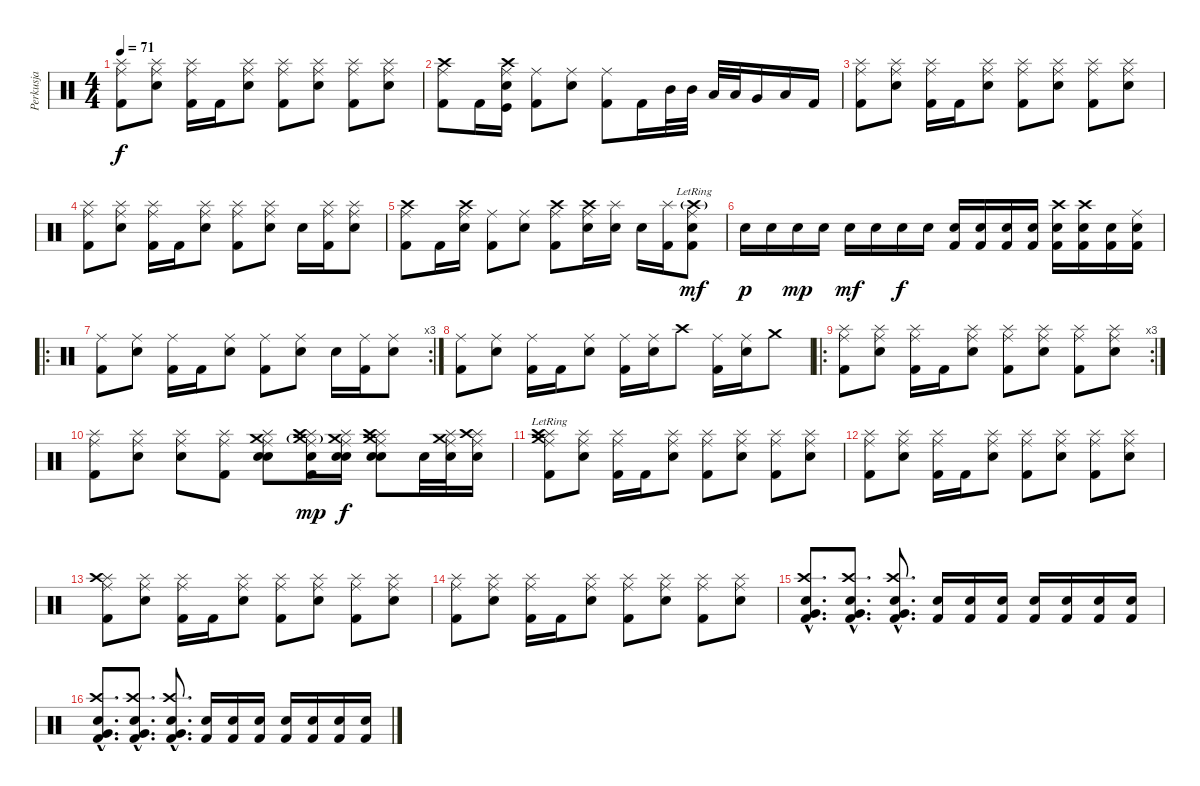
\track ("Perkusja" "Perkusja") {instrument percussion}
\staff {score}
\articulation defaults
\ts (4 4)
\tempo 71
\clef neutral
\ks c
("Ride (middle)" "Splash (hit)" "Kick (hit) 2").8{dy f} ("Ride (middle)" "Splash (hit)" "Electric Snare (hit)").8 ("Ride (middle)" "Splash (hit)" "Kick (hit) 2").16 "Kick (hit) 2".16 ("Ride (middle)" "Splash (hit)" "Electric Snare (hit)").8 ("Ride (middle)" "Splash (hit)" "Kick (hit) 2").8 ("Ride (middle)" "Splash (hit)" "Electric Snare (hit)").8 ("Ride (middle)" "Splash (hit)" "Kick (hit) 2").8 ("Ride (middle)" "Splash (hit)" "Electric Snare (hit)").8 |
("Ride (middle)" "Crash high (hit)" "Kick (hit) 2").8 "Kick (hit) 2".16 ("Ride (middle)" "Crash high (hit)" "Electric Snare (hit)" "Kick (hit)").16 ("Ride (middle)" "Kick (hit) 2").8 ("Ride (middle)" "Electric Snare (hit)").8 ("Ride (middle)" "Kick (hit) 2").8 "Kick (hit) 2".16 "Mid Tom (hit)".32 "Mid Tom (hit)".32 "Low Tom (hit)".32 "Low Tom (hit)".32 "Very Low Tom (hit)".16 "Low Floor Tom (hit)".16 "Kick (hit) 2".16 |
("Ride (middle)" "Splash (hit)" "Kick (hit) 2").8 ("Ride (middle)" "Splash (hit)" "Electric Snare (hit)").8 ("Ride (middle)" "Splash (hit)" "Kick (hit) 2").16 "Kick (hit) 2".16 ("Ride (middle)" "Splash (hit)" "Electric Snare (hit)").8 ("Ride (middle)" "Splash (hit)" "Kick (hit) 2").8 ("Ride (middle)" "Splash (hit)" "Electric Snare (hit)").8 ("Ride (middle)" "Splash (hit)" "Kick (hit) 2").8 ("Ride (middle)" "Splash (hit)" "Electric Snare (hit)").8 |
("Ride (middle)" "Splash (hit)" "Kick (hit) 2").8 ("Ride (middle)" "Splash (hit)" "Electric Snare (hit)").8 ("Ride (middle)" "Splash (hit)" "Kick (hit) 2").16 "Kick (hit) 2".16 ("Ride (middle)" "Splash (hit)" "Electric Snare (hit)").8 ("Ride (middle)" "Splash (hit)" "Kick (hit) 2").8 ("Ride (middle)" "Splash (hit)" "Electric Snare (hit)").8 "Electric Snare (hit)".16 ("Ride (middle)" "Splash (hit)" "Kick (hit) 2").16 ("Ride (middle)" "Splash (hit)" "Electric Snare (hit)").8 |
("Ride (middle)" "Kick (hit) 2" "Crash high (hit)").8 "Kick (hit) 2".16 ("Ride (middle)" "Electric Snare (hit)" "Crash high (hit)").16 ("Ride (middle)" "Kick (hit) 2").8 ("Ride (middle)" "Electric Snare (hit)").8 ("Ride (middle)" "Kick (hit) 2" "Crash high (hit)").8 ("Ride (middle)" "Electric Snare (hit)" "Crash high (hit)").16 ("Splash (hit)" "Electric Snare (hit)").16 "Electric Snare (hit)".16 ("Splash (hit)" "Kick (hit) 2").16 ("Ride (middle)"{lr} "Crash high (hit)"{g lr} "Kick (hit) 2"{lr} "Electric Snare (hit)").8{dy mf} |
"Electric Snare (hit)".16{dy p} "Electric Snare (hit)".16 "Electric Snare (hit)".16{dy mp} "Electric Snare (hit)".16 "Electric Snare (hit)".16{dy mf} "Electric Snare (hit)".16 "Electric Snare (hit)".16{dy f} "Electric Snare (hit)".16 ("Kick (hit) 2" "Electric Snare (hit)").16 ("Kick (hit) 2" "Electric Snare (hit)").16 ("Kick (hit) 2" "Electric Snare (hit)").16 ("Kick (hit) 2" "Electric Snare (hit)").16 ("Crash high (hit)" "Kick (hit) 2" "Electric Snare (hit)").16 ("Crash high (hit)" "Kick (hit) 2" "Electric Snare (hit)").16 ("Kick (hit) 2" "Electric Snare (hit)").16 ("Ride (middle)" "Kick (hit) 2" "Electric Snare (hit)").16 |
\ro
\rc 3
("Ride (middle)" "Kick (hit) 2").8 ("Ride (middle)" "Electric Snare (hit)").8 ("Ride (middle)" "Kick (hit) 2").16 "Kick (hit) 2".16 ("Ride (middle)" "Electric Snare (hit)").8 ("Ride (middle)" "Kick (hit) 2").8 ("Ride (middle)" "Electric Snare (hit)").8 "Electric Snare (hit)".16 ("Ride (middle)" "Kick (hit) 2").16 ("Ride (middle)" "Electric Snare (hit)").8 |
("Ride (middle)" "Kick (hit) 2").8 ("Ride (middle)" "Electric Snare (hit)").8 ("Ride (middle)" "Kick (hit) 2").16 "Kick (hit) 2".16 ("Ride (middle)" "Electric Snare (hit)").8 ("Ride (middle)" "Kick (hit) 2").16 ("Ride (middle)" "Electric Snare (hit)").16 "Crash high (hit)".8 ("Ride (middle)" "Kick (hit) 2").16 ("Ride (middle)" "Electric Snare (hit)").16 "Crash medium (hit)".8 |
\ro
\rc 3
("Ride (middle)" "Splash (hit)" "Kick (hit) 2").8 ("Ride (middle)" "Splash (hit)" "Electric Snare (hit)").8 ("Ride (middle)" "Splash (hit)" "Kick (hit) 2").16 "Kick (hit) 2".16 ("Ride (middle)" "Splash (hit)" "Electric Snare (hit)").8 ("Ride (middle)" "Splash (hit)" "Kick (hit) 2").8 ("Ride (middle)" "Splash (hit)" "Electric Snare (hit)").8 ("Ride (middle)" "Splash (hit)" "Kick (hit) 2").8 ("Ride (middle)" "Splash (hit)" "Electric Snare (hit)").8 |
("Ride (middle)" "Splash (hit)" "Kick (hit) 2").8 ("Ride (middle)" "Splash (hit)" "Electric Snare (hit)").8 ("Ride (middle)" "Splash (hit)" "Electric Snare (hit)").8 ("Ride (middle)" "Splash (hit)" "Kick (hit) 2").8 ("Ride (middle)" "Splash (hit)" "Crash medium (hit)" "Electric Snare (hit)" "Electric Snare (hit)").8 ("Ride (middle)" "Splash (hit)" "Crash medium (hit)"{g} "Crash high (hit)" "Kick (hit) 2" "Electric Snare (hit)").16{dy mp} ("Ride (middle)" "Splash (hit)" "Crash medium (hit)" "Electric Snare (hit)" "Electric Snare (hit)").16{dy f} ("Ride (middle)" "Splash (hit)" "Crash medium (hit)" "Crash high (hit)" "Electric Snare (hit)" "Electric Snare (hit)").8 "Electric Snare (hit)".32 ("Ride (middle)" "Splash (hit)" "Crash medium (hit)" "Electric Snare (hit)").32 ("Ride (middle)" "Splash (hit)" "Crash high (hit)" "Electric Snare (hit)").16 |
("Ride (middle)" "Splash (hit)" "Crash medium (hit)"{lr} "Crash high (hit)"{lr} "Kick (hit) 2").8 ("Ride (middle)" "Splash (hit)" "Electric Snare (hit)").8 ("Ride (middle)" "Splash (hit)" "Kick (hit) 2").16 "Kick (hit) 2".16 ("Ride (middle)" "Splash (hit)" "Electric Snare (hit)").8 ("Ride (middle)" "Splash (hit)" "Kick (hit) 2").8 ("Ride (middle)" "Splash (hit)" "Electric Snare (hit)").8 ("Ride (middle)" "Splash (hit)" "Kick (hit) 2").8 ("Ride (middle)" "Splash (hit)" "Electric Snare (hit)").8 |
("Ride (middle)" "Splash (hit)" "Kick (hit) 2").8 ("Ride (middle)" "Splash (hit)" "Electric Snare (hit)").8 ("Ride (middle)" "Splash (hit)" "Kick (hit) 2").16 "Kick (hit) 2".16 ("Ride (middle)" "Splash (hit)" "Electric Snare (hit)").8 ("Ride (middle)" "Splash (hit)" "Kick (hit) 2").8 ("Ride (middle)" "Splash (hit)" "Electric Snare (hit)").8 ("Ride (middle)" "Splash (hit)" "Kick (hit) 2").8 ("Ride (middle)" "Splash (hit)" "Electric Snare (hit)").8 |
("Ride (middle)" "Splash (hit)" "Crash high (hit)" "Kick (hit) 2").8 ("Ride (middle)" "Splash (hit)" "Electric Snare (hit)").8 ("Ride (middle)" "Splash (hit)" "Kick (hit) 2").16 "Kick (hit) 2".16 ("Ride (middle)" "Splash (hit)" "Electric Snare (hit)").8 ("Ride (middle)" "Splash (hit)" "Kick (hit) 2").8 ("Ride (middle)" "Splash (hit)" "Electric Snare (hit)").8 ("Ride (middle)" "Splash (hit)" "Kick (hit) 2").8 ("Ride (middle)" "Splash (hit)" "Electric Snare (hit)").8 |
("Ride (middle)" "Splash (hit)" "Kick (hit) 2").8 ("Ride (middle)" "Splash (hit)" "Electric Snare (hit)").8 ("Ride (middle)" "Splash (hit)" "Kick (hit) 2").16 "Kick (hit) 2".16 ("Ride (middle)" "Splash (hit)" "Electric Snare (hit)").8 ("Ride (middle)" "Splash (hit)" "Kick (hit) 2").8 ("Ride (middle)" "Splash (hit)" "Electric Snare (hit)").8 ("Ride (middle)" "Splash (hit)" "Kick (hit) 2").8 ("Ride (middle)" "Splash (hit)" "Electric Snare (hit)").8 |
("Electric Snare (hit)"{hac} "Kick (hit) 2"{hac} "Very Low Tom (hit)"{hac} "Crash high (hit)"{hac}).8{d} ("Electric Snare (hit)"{hac} "Kick (hit) 2"{hac} "Very Low Tom (hit)"{hac} "Crash high (hit)"{hac}).8{d} ("Electric Snare (hit)"{hac} "Kick (hit) 2"{hac} "Very Low Tom (hit)"{hac} "Crash high (hit)"{hac}).8{d} ("Kick (hit) 2" "Electric Snare (hit)").16 ("Kick (hit) 2" "Electric Snare (hit)").16 ("Kick (hit) 2" "Electric Snare (hit)").16 ("Kick (hit) 2" "Electric Snare (hit)").16 ("Kick (hit) 2" "Electric Snare (hit)").16 ("Kick (hit) 2" "Electric Snare (hit)").16 ("Kick (hit) 2" "Electric Snare (hit)").16 |
("Electric Snare (hit)"{hac} "Kick (hit) 2"{hac} "Very Low Tom (hit)"{hac} "Crash high (hit)"{hac}).8{d} ("Electric Snare (hit)"{hac} "Kick (hit) 2"{hac} "Very Low Tom (hit)"{hac} "Crash high (hit)"{hac}).8{d} ("Electric Snare (hit)"{hac} "Kick (hit) 2"{hac} "Very Low Tom (hit)"{hac} "Crash high (hit)"{hac}).8{d} ("Kick (hit) 2" "Electric Snare (hit)").16 ("Kick (hit) 2" "Electric Snare (hit)").16 ("Kick (hit) 2" "Electric Snare (hit)").16 ("Kick (hit) 2" "Electric Snare (hit)").16 ("Kick (hit) 2" "Electric Snare (hit)").16 ("Kick (hit) 2" "Electric Snare (hit)").16 ("Kick (hit) 2" "Electric Snare (hit)").16
